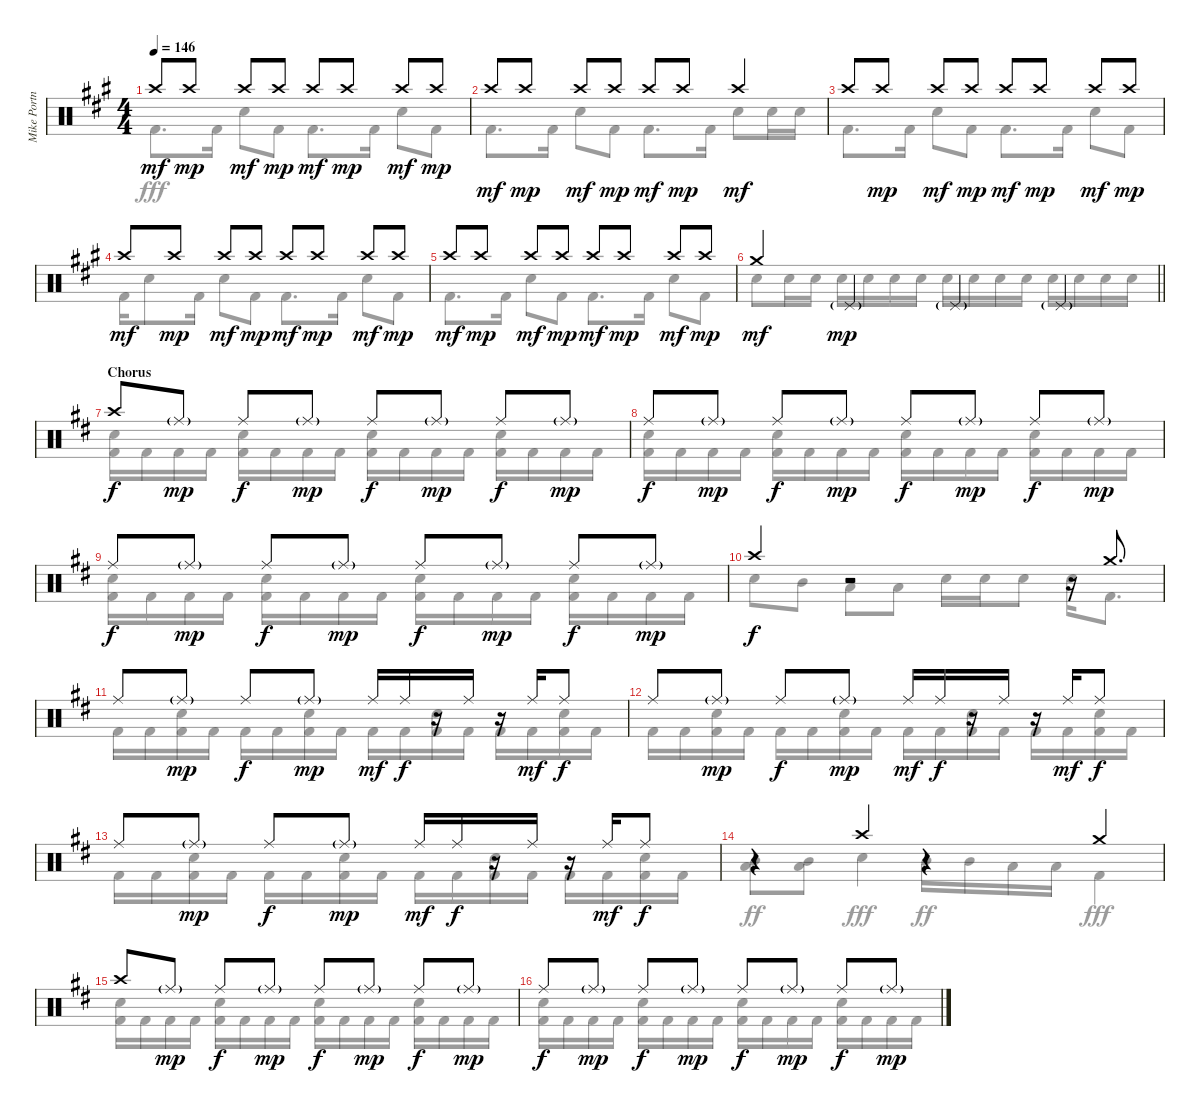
\track ("Mike Portnoy Drums" "Mike Portn") {instrument percussion}
\staff {score}
\articulation defaults
\voice
\ts (4 4)
\tempo 146
\clef neutral
\ks f#minor "Crash high (hit)".8{dy mf} "Crash high (hit)".8{dy mp} "Crash high (hit)".8{dy mf} "Crash high (hit)".8{dy mp} "Crash high (hit)".8{dy mf} "Crash high (hit)".8{dy mp} "Crash high (hit)".8{dy mf} "Crash high (hit)".8{dy mp}
|
"Crash high (hit)".8{dy mf} "Crash high (hit)".8{dy mp} "Crash high (hit)".8{dy mf} "Crash high (hit)".8{dy mp} "Crash high (hit)".8{dy mf} "Crash high (hit)".8{dy mp} "Crash high (hit)".4{dy mf} |
"Crash high (hit)".8 "Crash high (hit)".8{dy mp} "Crash high (hit)".8{dy mf} "Crash high (hit)".8{dy mp} "Crash high (hit)".8{dy mf} "Crash high (hit)".8{dy mp} "Crash high (hit)".8{dy mf} "Crash high (hit)".8{dy mp} |
"Crash high (hit)".8{dy mf} "Crash high (hit)".8{dy mp} "Crash high (hit)".8{dy mf} "Crash high (hit)".8{dy mp} "Crash high (hit)".8{dy mf} "Crash high (hit)".8{dy mp} "Crash high (hit)".8{dy mf} "Crash high (hit)".8{dy mp} |
"Crash high (hit)".8{dy mf} "Crash high (hit)".8{dy mp} "Crash high (hit)".8{dy mf} "Crash high (hit)".8{dy mp} "Crash high (hit)".8{dy mf} "Crash high (hit)".8{dy mp} "Crash high (hit)".8{dy mf} "Crash high (hit)".8{dy mp} |
\barLineRight lightlight "Crash medium (hit)".4{dy mf} "Pedal Hi-Hat (hit)"{g}.4{dy mp} "Pedal Hi-Hat (hit)"{g}.4 "Pedal Hi-Hat (hit)"{g}.4
|
\section ("" "Chorus")
\ks bminor "Crash high (hit)".8{dy f} "Ride (middle)"{g}.8{dy mp} "Ride (middle)".8{dy f} "Ride (middle)"{g}.8{dy mp} "Ride (middle)".8{dy f} "Ride (middle)"{g}.8{dy mp} "Ride (middle)".8{dy f} "Ride (middle)"{g}.8{dy mp}
|
"Ride (middle)".8{dy f} "Ride (middle)"{g}.8{dy mp} "Ride (middle)".8{dy f} "Ride (middle)"{g}.8{dy mp} "Ride (middle)".8{dy f} "Ride (middle)"{g}.8{dy mp} "Ride (middle)".8{dy f} "Ride (middle)"{g}.8{dy mp} |
"Ride (middle)".8{dy f} "Ride (middle)"{g}.8{dy mp} "Ride (middle)".8{dy f} "Ride (middle)"{g}.8{dy mp} "Ride (middle)".8{dy f} "Ride (middle)"{g}.8{dy mp} "Ride (middle)".8{dy f} "Ride (middle)"{g}.8{dy mp} |
"Crash high (hit)".4{dy f} r.2 r.16 "Crash medium (hit)".8{d} |
"Ride (middle)".8 "Ride (middle)"{g}.8{dy mp} "Ride (middle)".8{dy f} "Ride (middle)"{g}.8{dy mp} "Ride (middle)".16{dy mf} "Ride (middle)".16{dy f} r.16 "Ride (middle)".16 r.16 "Ride (middle)".16{dy mf} "Ride (middle)".8{dy f} |
"Ride (middle)".8 "Ride (middle)"{g}.8{dy mp} "Ride (middle)".8{dy f} "Ride (middle)"{g}.8{dy mp} "Ride (middle)".16{dy mf} "Ride (middle)".16{dy f} r.16 "Ride (middle)".16 r.16 "Ride (middle)".16{dy mf} "Ride (middle)".8{dy f} |
"Ride (middle)".8 "Ride (middle)"{g}.8{dy mp} "Ride (middle)".8{dy f} "Ride (middle)"{g}.8{dy mp} "Ride (middle)".16{dy mf} "Ride (middle)".16{dy f} r.16 "Ride (middle)".16 r.16 "Ride (middle)".16{dy mf} "Ride (middle)".8{dy f} |
r.4 "Crash high (hit)".4 r.4 "Crash medium (hit)".4 |
"Crash high (hit)".8 "Ride (middle)"{g}.8{dy mp} "Ride (middle)".8{dy f} "Ride (middle)"{g}.8{dy mp} "Ride (middle)".8{dy f} "Ride (middle)"{g}.8{dy mp} "Ride (middle)".8{dy f} "Ride (middle)"{g}.8{dy mp} |
"Ride (middle)".8{dy f} "Ride (middle)"{g}.8{dy mp} "Ride (middle)".8{dy f} "Ride (middle)"{g}.8{dy mp} "Ride (middle)".8{dy f} "Ride (middle)"{g}.8{dy mp} "Ride (middle)".8{dy f} "Ride (middle)"{g}.8{dy mp}
\voice
\clef neutral
\ottava regular
\simile none
\ks f#minor "Kick (hit) 2".8{d dy fff} "Kick (hit) 2".16 "Snare (hit) 2".8 "Kick (hit) 2".8 "Kick (hit) 2".8{d} "Kick (hit) 2".16 "Snare (hit) 2".8 "Kick (hit) 2".8
|
"Kick (hit) 2".8{d} "Kick (hit) 2".16 "Snare (hit) 2".8 "Kick (hit) 2".8 "Kick (hit) 2".8{d} "Kick (hit) 2".16 "Snare (hit) 2".8 "Snare (hit) 2".16 "Snare (hit) 2".16 |
"Kick (hit) 2".8{d} "Kick (hit) 2".16 "Snare (hit) 2".8 "Kick (hit) 2".8 "Kick (hit) 2".8{d} "Kick (hit) 2".16 "Snare (hit) 2".8 "Kick (hit) 2".8 |
"Kick (hit) 2".16 "Snare (hit) 2".8 "Kick (hit) 2".16 "Snare (hit) 2".8 "Kick (hit) 2".8 "Kick (hit) 2".8{d} "Kick (hit) 2".16 "Snare (hit) 2".8 "Kick (hit) 2".8 |
"Kick (hit) 2".8{d} "Kick (hit) 2".16 "Snare (hit) 2".8 "Kick (hit) 2".8 "Kick (hit) 2".8{d} "Kick (hit) 2".16 "Snare (hit) 2".8 "Kick (hit) 2".8 |
\barLineRight lightlight "Snare (hit) 2".8 "Snare (hit) 2".16 "Snare (hit) 2".16 "Snare (hit) 2".16 "Snare (hit) 2".16 "Snare (hit) 2".16 "Snare (hit) 2".16 "Snare (hit) 2".16 "Snare (hit) 2".16 "Snare (hit) 2".16 "Snare (hit) 2".16 "Snare (hit) 2".16 "Snare (hit) 2".16 "Snare (hit) 2".16 "Snare (hit) 2".16
|
\ks bminor
("Snare (hit) 2" "Kick (hit) 2").16 "Kick (hit) 2".16 "Kick (hit) 2".16 "Kick (hit) 2".16 ("Snare (hit) 2" "Kick (hit) 2").16 "Kick (hit) 2".16 "Kick (hit) 2".16 "Kick (hit) 2".16 ("Snare (hit) 2" "Kick (hit) 2").16 "Kick (hit) 2".16 "Kick (hit) 2".16 "Kick (hit) 2".16 ("Snare (hit) 2" "Kick (hit) 2").16 "Kick (hit) 2".16 "Kick (hit) 2".16 "Kick (hit) 2".16 |
("Snare (hit) 2" "Kick (hit) 2").16 "Kick (hit) 2".16 "Kick (hit) 2".16 "Kick (hit) 2".16 ("Snare (hit) 2" "Kick (hit) 2").16 "Kick (hit) 2".16 "Kick (hit) 2".16 "Kick (hit) 2".16 ("Snare (hit) 2" "Kick (hit) 2").16 "Kick (hit) 2".16 "Kick (hit) 2".16 "Kick (hit) 2".16 ("Snare (hit) 2" "Kick (hit) 2").16 "Kick (hit) 2".16 "Kick (hit) 2".16 "Kick (hit) 2".16 |
("Snare (hit) 2" "Kick (hit) 2").16 "Kick (hit) 2".16 "Kick (hit) 2".16 "Kick (hit) 2".16 ("Snare (hit) 2" "Kick (hit) 2").16 "Kick (hit) 2".16 "Kick (hit) 2".16 "Kick (hit) 2".16 ("Snare (hit) 2" "Kick (hit) 2").16 "Kick (hit) 2".16 "Kick (hit) 2".16 "Kick (hit) 2".16 ("Snare (hit) 2" "Kick (hit) 2").16 "Kick (hit) 2".16 "Kick (hit) 2".16 "Kick (hit) 2".16 |
"Snare (hit) 2".8 "Mid Tom (hit)".8 "Low Tom (hit)".8 "Low Tom (hit)".8 "Snare (hit) 2".16 "Snare (hit) 2".16 "Snare (hit) 2".8 "Snare (hit) 2".16 "Kick (hit) 2".8{d} |
"Kick (hit) 2".16 "Kick (hit) 2".16 ("Snare (hit) 2" "Kick (hit) 2").16 "Kick (hit) 2".16 "Kick (hit) 2".16 "Kick (hit) 2".16 ("Snare (hit) 2" "Kick (hit) 2").16 "Kick (hit) 2".16 "Kick (hit) 2".16 "Kick (hit) 2".16 ("Snare (hit) 2" "Kick (hit) 2").16 "Kick (hit) 2".16 "Kick (hit) 2".16 "Kick (hit) 2".16 ("Snare (hit) 2" "Kick (hit) 2").16 "Kick (hit) 2".16 |
"Kick (hit) 2".16 "Kick (hit) 2".16 ("Snare (hit) 2" "Kick (hit) 2").16 "Kick (hit) 2".16 "Kick (hit) 2".16 "Kick (hit) 2".16 ("Snare (hit) 2" "Kick (hit) 2").16 "Kick (hit) 2".16 "Kick (hit) 2".16 "Kick (hit) 2".16 ("Snare (hit) 2" "Kick (hit) 2").16 "Kick (hit) 2".16 "Kick (hit) 2".16 "Kick (hit) 2".16 ("Snare (hit) 2" "Kick (hit) 2").16 "Kick (hit) 2".16 |
"Kick (hit) 2".16 "Kick (hit) 2".16 ("Snare (hit) 2" "Kick (hit) 2").16 "Kick (hit) 2".16 "Kick (hit) 2".16 "Kick (hit) 2".16 ("Snare (hit) 2" "Kick (hit) 2").16 "Kick (hit) 2".16 "Kick (hit) 2".16 "Kick (hit) 2".16 ("Snare (hit) 2" "Kick (hit) 2").16 "Kick (hit) 2".16 "Kick (hit) 2".16 "Kick (hit) 2".16 ("Snare (hit) 2" "Kick (hit) 2").16 "Kick (hit) 2".16 |
("Mid Tom (hit)" "Low Tom (hit)").8{dy ff} ("Mid Tom (hit)" "Low Tom (hit)").8 "Snare (hit) 2".4{dy fff} "Mid Tom (hit)".16{dy ff} "Mid Tom (hit)".16 "Low Tom (hit)".16 "Low Tom (hit)".16 "Kick (hit) 2".4{dy fff} |
("Snare (hit) 2" "Kick (hit) 2").16 "Kick (hit) 2".16 "Kick (hit) 2".16 "Kick (hit) 2".16 ("Snare (hit) 2" "Kick (hit) 2").16 "Kick (hit) 2".16 "Kick (hit) 2".16 "Kick (hit) 2".16 ("Snare (hit) 2" "Kick (hit) 2").16 "Kick (hit) 2".16 "Kick (hit) 2".16 "Kick (hit) 2".16 ("Snare (hit) 2" "Kick (hit) 2").16 "Kick (hit) 2".16 "Kick (hit) 2".16 "Kick (hit) 2".16 |
("Snare (hit) 2" "Kick (hit) 2").16 "Kick (hit) 2".16 "Kick (hit) 2".16 "Kick (hit) 2".16 ("Snare (hit) 2" "Kick (hit) 2").16 "Kick (hit) 2".16 "Kick (hit) 2".16 "Kick (hit) 2".16 ("Snare (hit) 2" "Kick (hit) 2").16 "Kick (hit) 2".16 "Kick (hit) 2".16 "Kick (hit) 2".16 ("Snare (hit) 2" "Kick (hit) 2").16 "Kick (hit) 2".16 "Kick (hit) 2".16 "Kick (hit) 2".16
